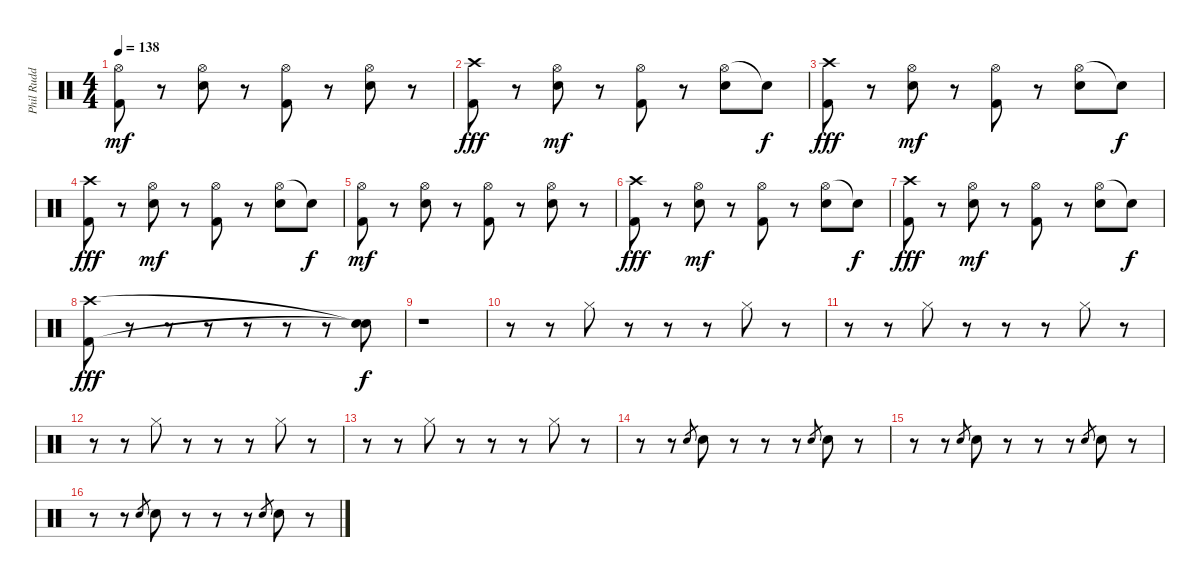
\track ("Phil Rudd" "Phil Rudd") {instrument percussion}
\staff {score}
\articulation defaults
\ts (4 4)
\tempo 138
\clef neutral
\ks c
("Hi-Hat (open)" "Kick (hit) 2").8{dy mf} r.8 ("Hi-Hat (open)" "Snare (hit) 2").8 r.8 ("Hi-Hat (open)" "Kick (hit) 2").8 r.8 ("Hi-Hat (open)" "Snare (hit) 2").8 r.8 |
("Crash high (hit)" "Kick (hit) 2").8{dy fff} r.8 ("Hi-Hat (open)" "Snare (hit) 2").8{dy mf} r.8 ("Hi-Hat (open)" "Kick (hit) 2").8 r.8 ("Hi-Hat (open)" "Snare (hit) 2").8 "Snare (hit)"{t}.8{dy f} |
("Crash high (hit)" "Kick (hit) 2").8{dy fff} r.8 ("Hi-Hat (open)" "Snare (hit) 2").8{dy mf} r.8 ("Hi-Hat (open)" "Kick (hit) 2").8 r.8 ("Hi-Hat (open)" "Snare (hit) 2").8 "Snare (hit)"{t}.8{dy f} |
("Crash high (hit)" "Kick (hit) 2").8{dy fff} r.8 ("Hi-Hat (open)" "Snare (hit) 2").8{dy mf} r.8 ("Hi-Hat (open)" "Kick (hit) 2").8 r.8 ("Hi-Hat (open)" "Snare (hit) 2").8 "Snare (hit)"{t}.8{dy f} |
("Hi-Hat (open)" "Kick (hit) 2").8{dy mf} r.8 ("Hi-Hat (open)" "Snare (hit) 2").8 r.8 ("Hi-Hat (open)" "Kick (hit) 2").8 r.8 ("Hi-Hat (open)" "Snare (hit) 2").8 r.8 |
("Crash high (hit)" "Kick (hit) 2").8{dy fff} r.8 ("Hi-Hat (open)" "Snare (hit) 2").8{dy mf} r.8 ("Hi-Hat (open)" "Kick (hit) 2").8 r.8 ("Hi-Hat (open)" "Snare (hit) 2").8 "Snare (hit)"{t}.8{dy f} |
("Crash high (hit)" "Kick (hit) 2").8{dy fff} r.8 ("Hi-Hat (open)" "Snare (hit) 2").8{dy mf} r.8 ("Hi-Hat (open)" "Kick (hit) 2").8 r.8 ("Hi-Hat (open)" "Snare (hit) 2").8 "Snare (hit)"{t}.8{dy f} |
("Crash high (hit)" "Kick (hit) 2").8{dy fff} r.8 r.8 r.8 r.8 r.8 r.8 ("Snare (hit)"{t} "Snare (hit)"{t}).8{dy f} |
r.1 |
r.8 r.8 "Hi-Hat (closed)".8 r.8 r.8 r.8 "Hi-Hat (closed)".8 r.8 |
r.8 r.8 "Hi-Hat (closed)".8 r.8 r.8 r.8 "Hi-Hat (closed)".8 r.8 |
r.8 r.8 "Hi-Hat (closed)".8 r.8 r.8 r.8 "Hi-Hat (closed)".8 r.8 |
r.8 r.8 "Hi-Hat (closed)".8 r.8 r.8 r.8 "Hi-Hat (closed)".8 r.8 |
r.8 r.8 "Snare (hit) 2".8{gr} "Snare (hit) 2".8 r.8 r.8 r.8 "Snare (hit) 2".8{gr} "Snare (hit) 2".8 r.8 |
r.8 r.8 "Snare (hit) 2".8{gr} "Snare (hit) 2".8 r.8 r.8 r.8 "Snare (hit) 2".8{gr} "Snare (hit) 2".8 r.8 |
r.8 r.8 "Snare (hit) 2".8{gr} "Snare (hit) 2".8 r.8 r.8 r.8 "Snare (hit) 2".8{gr} "Snare (hit) 2".8 r.8
